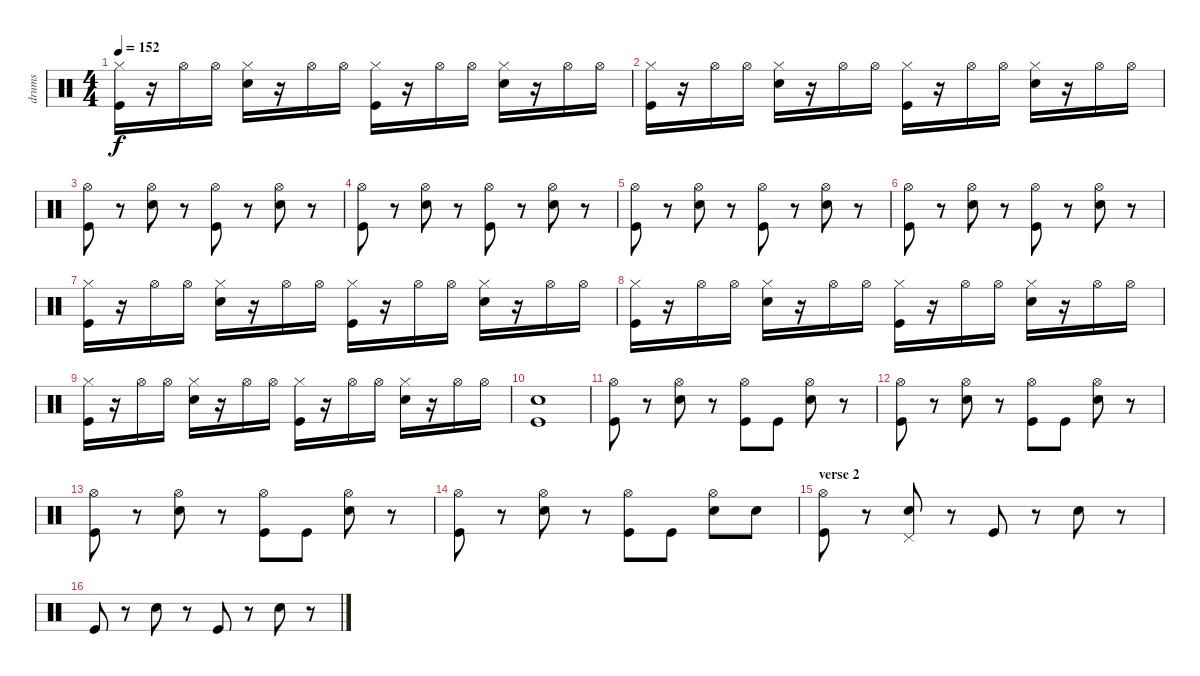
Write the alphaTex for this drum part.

\track ("drums" "drums") {instrument percussion}
\staff {score}
\articulation defaults
\ts (4 4)
\tempo 152
\clef neutral
\ks c
("Hi-Hat (closed)" "Kick (hit)").16{dy f} r.16 "Hi-Hat (open)".16 "Hi-Hat (open)".16 ("Hi-Hat (closed)" "Snare (hit) 2").16 r.16 "Hi-Hat (open)".16 "Hi-Hat (open)".16 ("Hi-Hat (closed)" "Kick (hit)").16 r.16 "Hi-Hat (open)".16 "Hi-Hat (open)".16 ("Hi-Hat (closed)" "Snare (hit) 2").16 r.16 "Hi-Hat (open)".16 "Hi-Hat (open)".16 |
("Hi-Hat (closed)" "Kick (hit)").16 r.16 "Hi-Hat (open)".16 "Hi-Hat (open)".16 ("Hi-Hat (closed)" "Snare (hit) 2").16 r.16 "Hi-Hat (open)".16 "Hi-Hat (open)".16 ("Hi-Hat (closed)" "Kick (hit)").16 r.16 "Hi-Hat (open)".16 "Hi-Hat (open)".16 ("Hi-Hat (closed)" "Snare (hit) 2").16 r.16 "Hi-Hat (open)".16 "Hi-Hat (open)".16 |
("Hi-Hat (open)" "Kick (hit)").8 r.8 ("Hi-Hat (open)" "Snare (hit) 2").8 r.8 ("Hi-Hat (open)" "Kick (hit)").8 r.8 ("Hi-Hat (open)" "Snare (hit) 2").8 r.8 |
("Hi-Hat (open)" "Kick (hit)").8 r.8 ("Hi-Hat (open)" "Snare (hit) 2").8 r.8 ("Hi-Hat (open)" "Kick (hit)").8 r.8 ("Hi-Hat (open)" "Snare (hit) 2").8 r.8 |
("Hi-Hat (open)" "Kick (hit)").8 r.8 ("Hi-Hat (open)" "Snare (hit) 2").8 r.8 ("Hi-Hat (open)" "Kick (hit)").8 r.8 ("Hi-Hat (open)" "Snare (hit) 2").8 r.8 |
("Hi-Hat (open)" "Kick (hit)").8 r.8 ("Hi-Hat (open)" "Snare (hit) 2").8 r.8 ("Hi-Hat (open)" "Kick (hit)").8 r.8 ("Hi-Hat (open)" "Snare (hit) 2").8 r.8 |
("Hi-Hat (closed)" "Kick (hit)").16 r.16 "Hi-Hat (open)".16 "Hi-Hat (open)".16 ("Hi-Hat (closed)" "Snare (hit) 2").16 r.16 "Hi-Hat (open)".16 "Hi-Hat (open)".16 ("Hi-Hat (closed)" "Kick (hit)").16 r.16 "Hi-Hat (open)".16 "Hi-Hat (open)".16 ("Hi-Hat (closed)" "Snare (hit) 2").16 r.16 "Hi-Hat (open)".16 "Hi-Hat (open)".16 |
("Hi-Hat (closed)" "Kick (hit)").16 r.16 "Hi-Hat (open)".16 "Hi-Hat (open)".16 ("Hi-Hat (closed)" "Snare (hit) 2").16 r.16 "Hi-Hat (open)".16 "Hi-Hat (open)".16 ("Hi-Hat (closed)" "Kick (hit)").16 r.16 "Hi-Hat (open)".16 "Hi-Hat (open)".16 ("Hi-Hat (closed)" "Snare (hit) 2").16 r.16 "Hi-Hat (open)".16 "Hi-Hat (open)".16 |
("Hi-Hat (closed)" "Kick (hit)").16 r.16 "Hi-Hat (open)".16 "Hi-Hat (open)".16 ("Hi-Hat (closed)" "Snare (hit) 2").16 r.16 "Hi-Hat (open)".16 "Hi-Hat (open)".16 ("Hi-Hat (closed)" "Kick (hit)").16 r.16 "Hi-Hat (open)".16 "Hi-Hat (open)".16 ("Hi-Hat (closed)" "Snare (hit) 2").16 r.16 "Hi-Hat (open)".16 "Hi-Hat (open)".16 |
("Snare (hit) 2" "Kick (hit)").1 |
("Hi-Hat (open)" "Kick (hit)").8 r.8 ("Hi-Hat (open)" "Snare (hit) 2").8 r.8 ("Hi-Hat (open)" "Kick (hit)").8 "Kick (hit)".8 ("Hi-Hat (open)" "Snare (hit) 2").8 r.8 |
("Hi-Hat (open)" "Kick (hit)").8 r.8 ("Hi-Hat (open)" "Snare (hit) 2").8 r.8 ("Hi-Hat (open)" "Kick (hit)").8 "Kick (hit)".8 ("Hi-Hat (open)" "Snare (hit) 2").8 r.8 |
("Hi-Hat (open)" "Kick (hit)").8 r.8 ("Hi-Hat (open)" "Snare (hit) 2").8 r.8 ("Hi-Hat (open)" "Kick (hit)").8 "Kick (hit)".8 ("Hi-Hat (open)" "Snare (hit) 2").8 r.8 |
("Hi-Hat (open)" "Kick (hit)").8 r.8 ("Hi-Hat (open)" "Snare (hit) 2").8 r.8 ("Hi-Hat (open)" "Kick (hit)").8 "Kick (hit)".8 ("Hi-Hat (open)" "Snare (hit) 2").8 "Snare (hit) 2".8 |
\section ("" "verse 2")
("Hi-Hat (open)" "Kick (hit)").8 r.8 ("Pedal Hi-Hat (hit)" "Snare (hit) 2").8 r.8 "Kick (hit)".8 r.8 "Snare (hit) 2".8 r.8 |
"Kick (hit)".8 r.8 "Snare (hit) 2".8 r.8 "Kick (hit)".8 r.8 "Snare (hit) 2".8 r.8
